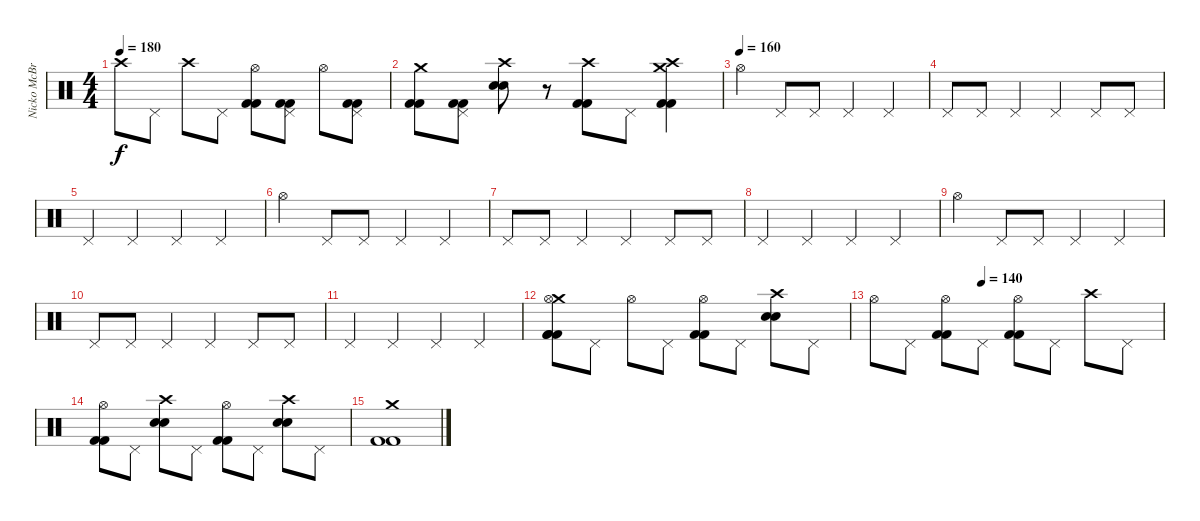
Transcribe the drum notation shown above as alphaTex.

\track ("Nicko McBrain" "Nicko McBr") {instrument percussion}
\staff {score}
\articulation defaults
\ts (4 4)
\tempo 180
\clef neutral
\ks c "Crash high (hit)".8{dy f} "Pedal Hi-Hat (hit)".8 "Crash high (hit)".8 "Pedal Hi-Hat (hit)".8
("Hi-Hat (open)" "Kick (hit) 2" "Kick (hit) 2").8 ("Pedal Hi-Hat (hit)" "Kick (hit) 2" "Kick (hit) 2").8 "Hi-Hat (open)".8 ("Pedal Hi-Hat (hit)" "Kick (hit) 2" "Kick (hit) 2").8 |
("Crash medium (hit)" "Kick (hit) 2" "Kick (hit) 2").8 ("Pedal Hi-Hat (hit)" "Kick (hit) 2" "Kick (hit) 2").8 ("Crash high (hit)" "Snare (hit) 2" "Snare (hit) 2").8 r.8 ("Crash high (hit)" "Kick (hit) 2" "Kick (hit) 2").8 "Pedal Hi-Hat (hit)".8 ("Crash high (hit)" "Crash medium (hit)" "Kick (hit) 2" "Kick (hit) 2").4 |
\tempo (160)
"Hi-Hat (open)".4 "Pedal Hi-Hat (hit)".8 "Pedal Hi-Hat (hit)".8 "Pedal Hi-Hat (hit)".4 "Pedal Hi-Hat (hit)".4 |
"Pedal Hi-Hat (hit)".8 "Pedal Hi-Hat (hit)".8 "Pedal Hi-Hat (hit)".4 "Pedal Hi-Hat (hit)".4 "Pedal Hi-Hat (hit)".8 "Pedal Hi-Hat (hit)".8 |
"Pedal Hi-Hat (hit)".4 "Pedal Hi-Hat (hit)".4 "Pedal Hi-Hat (hit)".4 "Pedal Hi-Hat (hit)".4 |
"Hi-Hat (open)".4 "Pedal Hi-Hat (hit)".8 "Pedal Hi-Hat (hit)".8 "Pedal Hi-Hat (hit)".4 "Pedal Hi-Hat (hit)".4 |
"Pedal Hi-Hat (hit)".8 "Pedal Hi-Hat (hit)".8 "Pedal Hi-Hat (hit)".4 "Pedal Hi-Hat (hit)".4 "Pedal Hi-Hat (hit)".8 "Pedal Hi-Hat (hit)".8 |
"Pedal Hi-Hat (hit)".4 "Pedal Hi-Hat (hit)".4 "Pedal Hi-Hat (hit)".4 "Pedal Hi-Hat (hit)".4 |
"Hi-Hat (open)".4 "Pedal Hi-Hat (hit)".8 "Pedal Hi-Hat (hit)".8 "Pedal Hi-Hat (hit)".4 "Pedal Hi-Hat (hit)".4 |
"Pedal Hi-Hat (hit)".8 "Pedal Hi-Hat (hit)".8 "Pedal Hi-Hat (hit)".4 "Pedal Hi-Hat (hit)".4 "Pedal Hi-Hat (hit)".8 "Pedal Hi-Hat (hit)".8 |
"Pedal Hi-Hat (hit)".4 "Pedal Hi-Hat (hit)".4 "Pedal Hi-Hat (hit)".4 "Pedal Hi-Hat (hit)".4 |
("Crash medium (hit)" "Hi-Hat (open)" "Kick (hit) 2" "Kick (hit) 2" "Kick (hit) 2").8 "Pedal Hi-Hat (hit)".8 "Hi-Hat (open)".8 "Pedal Hi-Hat (hit)".8 ("Hi-Hat (open)" "Kick (hit) 2" "Kick (hit) 2").8 "Pedal Hi-Hat (hit)".8 ("Crash high (hit)" "Snare (hit) 2" "Snare (hit) 2").8 "Pedal Hi-Hat (hit)".8 |
\tempo (140 0.375)
"Hi-Hat (open)".8 "Pedal Hi-Hat (hit)".8 ("Hi-Hat (open)" "Kick (hit) 2" "Kick (hit) 2").8 "Pedal Hi-Hat (hit)".8 ("Hi-Hat (open)" "Kick (hit) 2" "Kick (hit) 2").8 "Pedal Hi-Hat (hit)".8 "Crash high (hit)".8 "Pedal Hi-Hat (hit)".8 |
("Hi-Hat (open)" "Kick (hit) 2" "Kick (hit) 2").8 "Pedal Hi-Hat (hit)".8 ("Crash high (hit)" "Snare (hit) 2" "Snare (hit) 2").8 "Pedal Hi-Hat (hit)".8 ("Hi-Hat (open)" "Kick (hit) 2" "Kick (hit) 2").8 "Pedal Hi-Hat (hit)".8 ("Crash high (hit)" "Snare (hit) 2" "Snare (hit) 2").8 "Pedal Hi-Hat (hit)".8 |
("Crash medium (hit)" "Kick (hit) 2" "Kick (hit) 2").1
